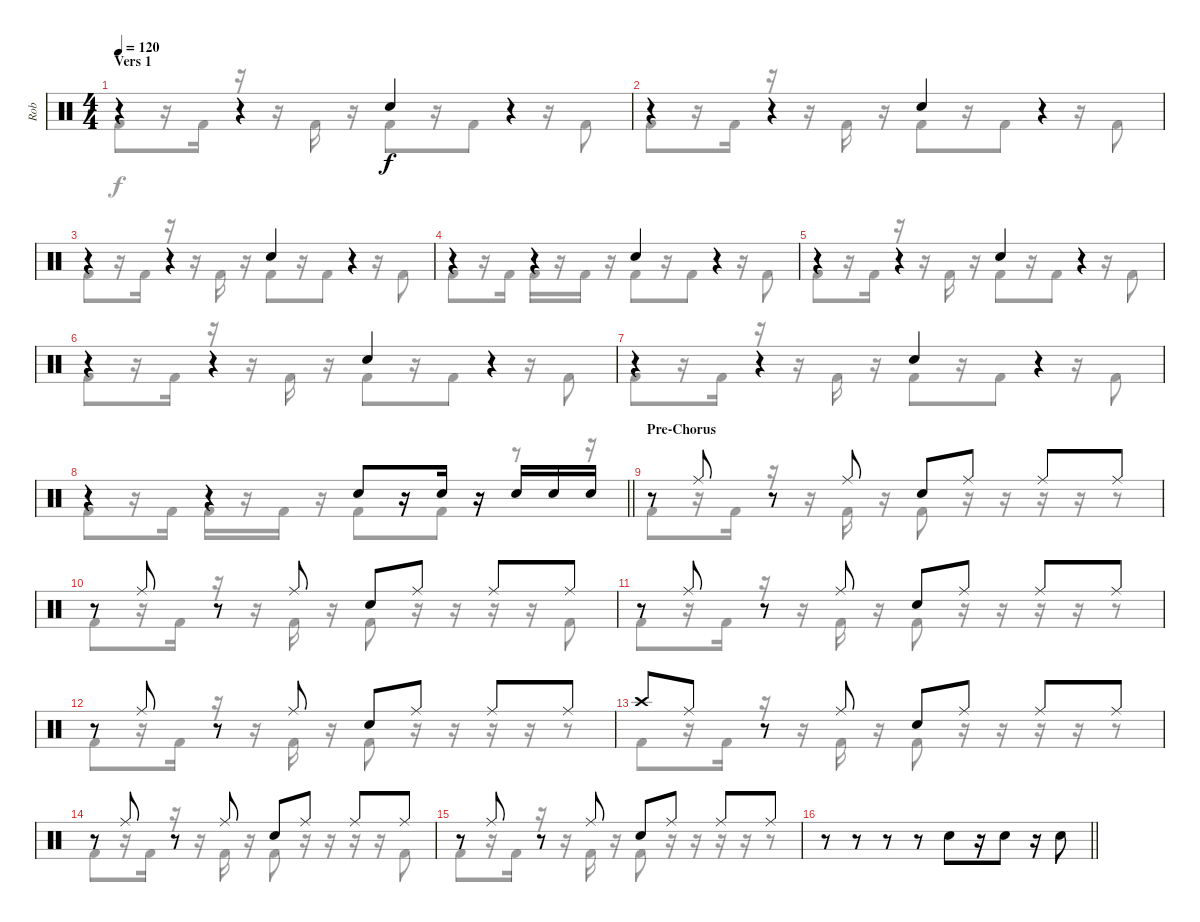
\track ("Rob" "Rob") {instrument percussion}
\staff {score}
\articulation defaults
\voice
\ts (4 4)
\section ("" "Vers 1")
\tempo 120
\clef neutral
\ks c
r.4{dy f} r.4 "Snare (hit) 2".4 r.4 |
r.4 r.4 "Snare (hit) 2".4 r.4 |
r.4 r.4 "Snare (hit) 2".4 r.4 |
r.4 r.4 "Snare (hit) 2".4 r.4 |
r.4 r.4 "Snare (hit) 2".4 r.4 |
r.4 r.4 "Snare (hit) 2".4 r.4 |
r.4 r.4 "Snare (hit) 2".4 r.4 |
\barLineRight lightlight
r.4 r.4 "Snare (hit) 2".8 r.16 "Snare (hit) 2".16 r.16 "Snare (hit) 2".16 "Snare (hit) 2".16 "Snare (hit) 2".16 |
\section ("" "Pre-Chorus")
r.8 "Ride (middle)".8 r.8 "Ride (middle)".8 "Snare (hit) 2".8 "Ride (middle)".8 "Ride (middle)".8 "Ride (middle)".8 |
r.8 "Ride (middle)".8 r.8 "Ride (middle)".8 "Snare (hit) 2".8 "Ride (middle)".8 "Ride (middle)".8 "Ride (middle)".8 |
r.8 "Ride (middle)".8 r.8 "Ride (middle)".8 "Snare (hit) 2".8 "Ride (middle)".8 "Ride (middle)".8 "Ride (middle)".8 |
r.8 "Ride (middle)".8 r.8 "Ride (middle)".8 "Snare (hit) 2".8 "Ride (middle)".8 "Ride (middle)".8 "Ride (middle)".8 |
"Crash high (hit)".8 "Ride (middle)".8 r.8 "Ride (middle)".8 "Snare (hit) 2".8 "Ride (middle)".8 "Ride (middle)".8 "Ride (middle)".8 |
r.8 "Ride (middle)".8 r.8 "Ride (middle)".8 "Snare (hit) 2".8 "Ride (middle)".8 "Ride (middle)".8 "Ride (middle)".8 |
r.8 "Ride (middle)".8 r.8 "Ride (middle)".8 "Snare (hit) 2".8 "Ride (middle)".8 "Ride (middle)".8 "Ride (middle)".8 |
\barLineRight lightlight
r.8 r.8 r.8 r.8 "Snare (hit) 2".8 r.16 "Snare (hit) 2".8 r.16 "Snare (hit) 2".8
\voice
\clef neutral
\ottava regular
\simile none
\ks c "Kick (hit) 2".8{dy f}
r.16 "Kick (hit) 2".16 r.16 r.16 "Kick (hit) 2".16 r.16 "Kick (hit) 2".8 r.16 "Kick (hit) 2".8 r.16 "Kick (hit) 2".8 |
"Kick (hit) 2".8 r.16 "Kick (hit) 2".16 r.16 r.16 "Kick (hit) 2".16 r.16 "Kick (hit) 2".8 r.16 "Kick (hit) 2".8 r.16 "Kick (hit) 2".8 |
"Kick (hit) 2".8 r.16 "Kick (hit) 2".16 r.16 r.16 "Kick (hit) 2".16 r.16 "Kick (hit) 2".8 r.16 "Kick (hit) 2".8 r.16 "Kick (hit) 2".8 |
"Kick (hit) 2".8 r.16 "Kick (hit) 2".16 "Kick (hit) 2".16 r.16 "Kick (hit) 2".16 r.16 "Kick (hit) 2".8 r.16 "Kick (hit) 2".8 r.16 "Kick (hit) 2".8 |
"Kick (hit) 2".8 r.16 "Kick (hit) 2".16 r.16 r.16 "Kick (hit) 2".16 r.16 "Kick (hit) 2".8 r.16 "Kick (hit) 2".8 r.16 "Kick (hit) 2".8 |
"Kick (hit) 2".8 r.16 "Kick (hit) 2".16 r.16 r.16 "Kick (hit) 2".16 r.16 "Kick (hit) 2".8 r.16 "Kick (hit) 2".8 r.16 "Kick (hit) 2".8 |
"Kick (hit) 2".8 r.16 "Kick (hit) 2".16 r.16 r.16 "Kick (hit) 2".16 r.16 "Kick (hit) 2".8 r.16 "Kick (hit) 2".8 r.16 "Kick (hit) 2".8 |
\barLineRight lightlight "Kick (hit) 2".8
r.16 "Kick (hit) 2".16 "Kick (hit) 2".16 r.16 "Kick (hit) 2".16 r.16 "Kick (hit) 2".8 r.16 "Kick (hit) 2".8 r.8 r.16 |
"Kick (hit) 2".8 r.16 "Kick (hit) 2".16 r.16 r.16 "Kick (hit) 2".16 r.16 "Kick (hit) 2".8 r.16 r.16 r.16 r.16 r.8 |
"Kick (hit) 2".8 r.16 "Kick (hit) 2".16 r.16 r.16 "Kick (hit) 2".16 r.16 "Kick (hit) 2".8 r.16 r.16 r.16 r.16 "Kick (hit) 2".8 |
"Kick (hit) 2".8 r.16 "Kick (hit) 2".16 r.16 r.16 "Kick (hit) 2".16 r.16 "Kick (hit) 2".8 r.16 r.16 r.16 r.16 r.8 |
"Kick (hit) 2".8 r.16 "Kick (hit) 2".16 r.16 r.16 "Kick (hit) 2".16 r.16 "Kick (hit) 2".8 r.16 r.16 r.16 r.16 r.8 |
"Kick (hit) 2".8 r.16 "Kick (hit) 2".16 r.16 r.16 "Kick (hit) 2".16 r.16 "Kick (hit) 2".8 r.16 r.16 r.16 r.16 r.8 |
"Kick (hit) 2".8 r.16 "Kick (hit) 2".16 r.16 r.16 "Kick (hit) 2".16 r.16 "Kick (hit) 2".8 r.16 r.16 r.16 r.16 "Kick (hit) 2".8 |
"Kick (hit) 2".8 r.16 "Kick (hit) 2".16 r.16 r.16 "Kick (hit) 2".16 r.16 "Kick (hit) 2".8 r.16 r.16 r.16 r.16 r.8 |
\barLineRight lightlight
